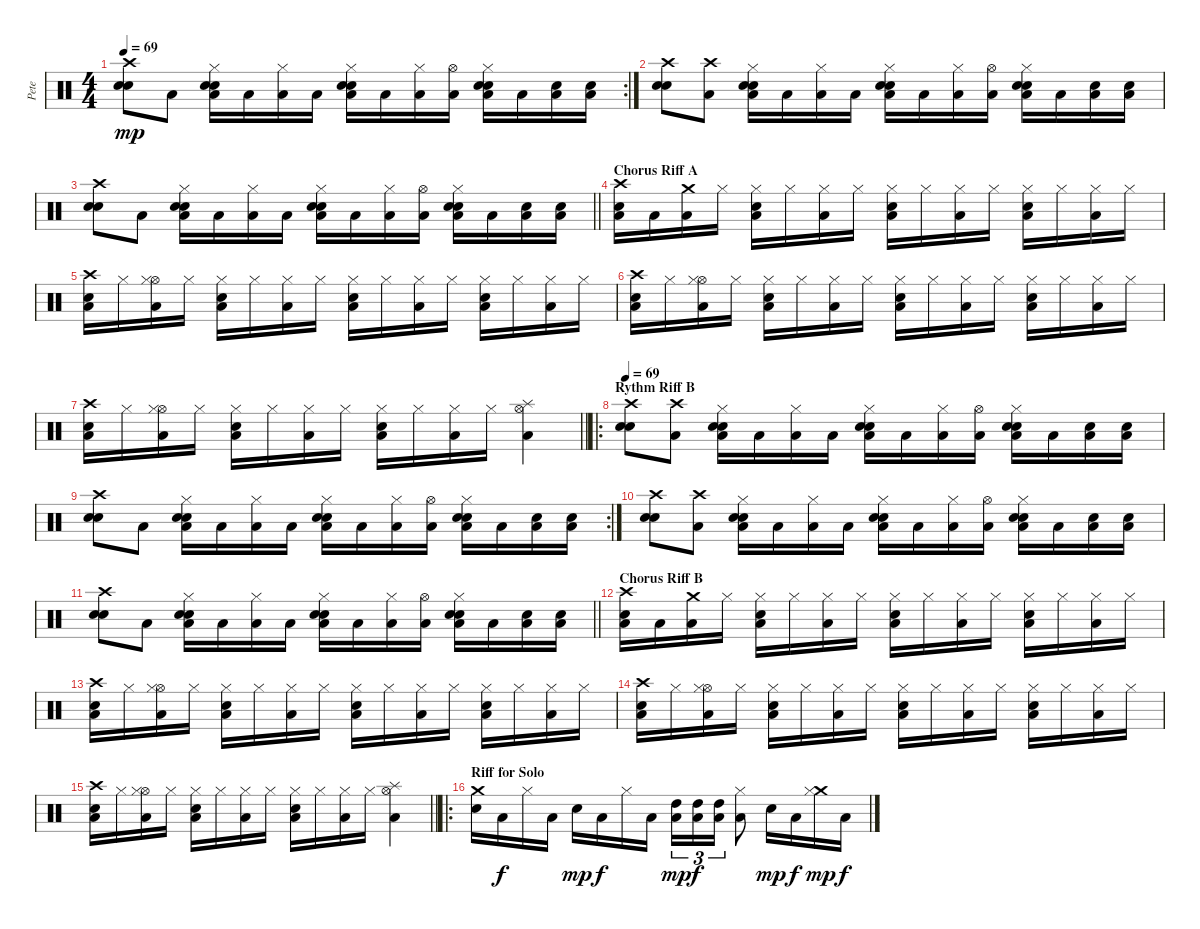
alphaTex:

\track ("Pete" "Pete") {instrument percussion}
\staff {score}
\articulation defaults
\rc 2
\ts (4 4)
\tempo 69
\clef neutral
\ks c
("Electric Snare (hit)" "Crash high (hit)" "Electric Snare (hit)").8{dy mp} "Low Floor Tom (hit)".8 ("Electric Snare (hit)" "Hi-Hat (closed)" "Low Floor Tom (hit)" "Electric Snare (hit)").16 "Low Floor Tom (hit)".16 ("Hi-Hat (closed)" "Low Floor Tom (hit)").16 "Low Floor Tom (hit)".16 ("Electric Snare (hit)" "Hi-Hat (closed)" "Low Floor Tom (hit)" "Electric Snare (hit)").16 "Low Floor Tom (hit)".16 ("Hi-Hat (closed)" "Low Floor Tom (hit)").16 ("Hi-Hat (open)" "Low Floor Tom (hit)").16 ("Electric Snare (hit)" "Hi-Hat (closed)" "Low Floor Tom (hit)" "Electric Snare (hit)").16 "Low Floor Tom (hit)".16 ("Electric Snare (hit)" "Low Floor Tom (hit)").16 ("Electric Snare (hit)" "Low Floor Tom (hit)").16 |
("Electric Snare (hit)" "Crash high (hit)" "Electric Snare (hit)").8 ("Crash high (hit)" "Low Floor Tom (hit)").8 ("Electric Snare (hit)" "Hi-Hat (closed)" "Low Floor Tom (hit)" "Electric Snare (hit)").16 "Low Floor Tom (hit)".16 ("Hi-Hat (closed)" "Low Floor Tom (hit)").16 "Low Floor Tom (hit)".16 ("Electric Snare (hit)" "Hi-Hat (closed)" "Low Floor Tom (hit)" "Electric Snare (hit)").16 "Low Floor Tom (hit)".16 ("Hi-Hat (closed)" "Low Floor Tom (hit)").16 ("Hi-Hat (open)" "Low Floor Tom (hit)").16 ("Electric Snare (hit)" "Hi-Hat (closed)" "Low Floor Tom (hit)" "Electric Snare (hit)").16 "Low Floor Tom (hit)".16 ("Electric Snare (hit)" "Low Floor Tom (hit)").16 ("Electric Snare (hit)" "Low Floor Tom (hit)").16 |
\barLineRight lightlight
("Electric Snare (hit)" "Crash high (hit)" "Electric Snare (hit)").8 "Low Floor Tom (hit)".8 ("Electric Snare (hit)" "Hi-Hat (closed)" "Low Floor Tom (hit)" "Electric Snare (hit)").16 "Low Floor Tom (hit)".16 ("Hi-Hat (closed)" "Low Floor Tom (hit)").16 "Low Floor Tom (hit)".16 ("Electric Snare (hit)" "Hi-Hat (closed)" "Low Floor Tom (hit)" "Electric Snare (hit)").16 "Low Floor Tom (hit)".16 ("Hi-Hat (closed)" "Low Floor Tom (hit)").16 ("Hi-Hat (open)" "Low Floor Tom (hit)").16 ("Electric Snare (hit)" "Hi-Hat (closed)" "Low Floor Tom (hit)" "Electric Snare (hit)").16 "Low Floor Tom (hit)".16 ("Electric Snare (hit)" "Low Floor Tom (hit)").16 ("Electric Snare (hit)" "Low Floor Tom (hit)").16 |
\section ("" "Chorus Riff A")
("Electric Snare (hit)" "Crash high (hit)" "Low Floor Tom (hit)").16 "Low Floor Tom (hit)".16 ("Crash medium (hit)" "Low Floor Tom (hit)").16 "Hi-Hat (closed)".16 ("Electric Snare (hit)" "Hi-Hat (closed)" "Low Floor Tom (hit)").16 "Hi-Hat (closed)".16 ("Hi-Hat (closed)" "Low Floor Tom (hit)").16 "Hi-Hat (closed)".16 ("Electric Snare (hit)" "Hi-Hat (closed)" "Low Floor Tom (hit)").16 "Hi-Hat (closed)".16 ("Hi-Hat (closed)" "Low Floor Tom (hit)").16 "Hi-Hat (closed)".16 ("Electric Snare (hit)" "Hi-Hat (closed)" "Low Floor Tom (hit)").16 "Hi-Hat (closed)".16 ("Hi-Hat (closed)" "Low Floor Tom (hit)").16 "Hi-Hat (closed)".16 |
("Electric Snare (hit)" "Crash high (hit)" "Low Floor Tom (hit)").16 "Hi-Hat (closed)".16 ("Hi-Hat (open)" "Hi-Hat (closed)" "Low Floor Tom (hit)").16 "Hi-Hat (closed)".16 ("Electric Snare (hit)" "Hi-Hat (closed)" "Low Floor Tom (hit)").16 "Hi-Hat (closed)".16 ("Hi-Hat (closed)" "Low Floor Tom (hit)").16 "Hi-Hat (closed)".16 ("Electric Snare (hit)" "Hi-Hat (closed)" "Low Floor Tom (hit)").16 "Hi-Hat (closed)".16 ("Hi-Hat (closed)" "Low Floor Tom (hit)").16 "Hi-Hat (closed)".16 ("Electric Snare (hit)" "Hi-Hat (closed)" "Low Floor Tom (hit)").16 "Hi-Hat (closed)".16 ("Hi-Hat (closed)" "Low Floor Tom (hit)").16 "Hi-Hat (closed)".16 |
("Electric Snare (hit)" "Crash high (hit)" "Low Floor Tom (hit)").16 "Hi-Hat (closed)".16 ("Hi-Hat (open)" "Hi-Hat (closed)" "Low Floor Tom (hit)").16 "Hi-Hat (closed)".16 ("Electric Snare (hit)" "Hi-Hat (closed)" "Low Floor Tom (hit)").16 "Hi-Hat (closed)".16 ("Hi-Hat (closed)" "Low Floor Tom (hit)").16 "Hi-Hat (closed)".16 ("Electric Snare (hit)" "Hi-Hat (closed)" "Low Floor Tom (hit)").16 "Hi-Hat (closed)".16 ("Hi-Hat (closed)" "Low Floor Tom (hit)").16 "Hi-Hat (closed)".16 ("Electric Snare (hit)" "Hi-Hat (closed)" "Low Floor Tom (hit)").16 "Hi-Hat (closed)".16 ("Hi-Hat (closed)" "Low Floor Tom (hit)").16 "Hi-Hat (closed)".16 |
\barLineRight lightlight
("Electric Snare (hit)" "Crash high (hit)" "Low Floor Tom (hit)").16 "Hi-Hat (closed)".16 ("Hi-Hat (open)" "Hi-Hat (closed)" "Low Floor Tom (hit)").16 "Hi-Hat (closed)".16 ("Electric Snare (hit)" "Hi-Hat (closed)" "Low Floor Tom (hit)").16 "Hi-Hat (closed)".16 ("Hi-Hat (closed)" "Low Floor Tom (hit)").16 "Hi-Hat (closed)".16 ("Electric Snare (hit)" "Hi-Hat (closed)" "Low Floor Tom (hit)").16 "Hi-Hat (closed)".16 ("Hi-Hat (closed)" "Low Floor Tom (hit)").16 "Hi-Hat (closed)".16 ("Splash (hit)" "Hi-Hat (open)" "Low Floor Tom (hit)").4 |
\ro
\section ("" "Rythm Riff B")
\tempo 69
("Electric Snare (hit)" "Crash high (hit)" "Electric Snare (hit)").8 ("Crash high (hit)" "Low Floor Tom (hit)").8 ("Electric Snare (hit)" "Hi-Hat (closed)" "Low Floor Tom (hit)" "Electric Snare (hit)").16 "Low Floor Tom (hit)".16 ("Hi-Hat (closed)" "Low Floor Tom (hit)").16 "Low Floor Tom (hit)".16 ("Electric Snare (hit)" "Hi-Hat (closed)" "Low Floor Tom (hit)" "Electric Snare (hit)").16 "Low Floor Tom (hit)".16 ("Hi-Hat (closed)" "Low Floor Tom (hit)").16 ("Hi-Hat (open)" "Low Floor Tom (hit)").16 ("Electric Snare (hit)" "Hi-Hat (closed)" "Low Floor Tom (hit)" "Electric Snare (hit)").16 "Low Floor Tom (hit)".16 ("Electric Snare (hit)" "Low Floor Tom (hit)").16 ("Electric Snare (hit)" "Low Floor Tom (hit)").16 |
\rc 2
("Electric Snare (hit)" "Crash high (hit)" "Electric Snare (hit)").8 "Low Floor Tom (hit)".8 ("Electric Snare (hit)" "Hi-Hat (closed)" "Low Floor Tom (hit)" "Electric Snare (hit)").16 "Low Floor Tom (hit)".16 ("Hi-Hat (closed)" "Low Floor Tom (hit)").16 "Low Floor Tom (hit)".16 ("Electric Snare (hit)" "Hi-Hat (closed)" "Low Floor Tom (hit)" "Electric Snare (hit)").16 "Low Floor Tom (hit)".16 ("Hi-Hat (closed)" "Low Floor Tom (hit)").16 ("Hi-Hat (open)" "Low Floor Tom (hit)").16 ("Electric Snare (hit)" "Hi-Hat (closed)" "Low Floor Tom (hit)" "Electric Snare (hit)").16 "Low Floor Tom (hit)".16 ("Electric Snare (hit)" "Low Floor Tom (hit)").16 ("Electric Snare (hit)" "Low Floor Tom (hit)").16 |
("Electric Snare (hit)" "Crash high (hit)" "Electric Snare (hit)").8 ("Crash high (hit)" "Low Floor Tom (hit)").8 ("Electric Snare (hit)" "Hi-Hat (closed)" "Low Floor Tom (hit)" "Electric Snare (hit)").16 "Low Floor Tom (hit)".16 ("Hi-Hat (closed)" "Low Floor Tom (hit)").16 "Low Floor Tom (hit)".16 ("Electric Snare (hit)" "Hi-Hat (closed)" "Low Floor Tom (hit)" "Electric Snare (hit)").16 "Low Floor Tom (hit)".16 ("Hi-Hat (closed)" "Low Floor Tom (hit)").16 ("Hi-Hat (open)" "Low Floor Tom (hit)").16 ("Electric Snare (hit)" "Hi-Hat (closed)" "Low Floor Tom (hit)" "Electric Snare (hit)").16 "Low Floor Tom (hit)".16 ("Electric Snare (hit)" "Low Floor Tom (hit)").16 ("Electric Snare (hit)" "Low Floor Tom (hit)").16 |
\barLineRight lightlight
("Electric Snare (hit)" "Crash high (hit)" "Electric Snare (hit)").8 "Low Floor Tom (hit)".8 ("Electric Snare (hit)" "Hi-Hat (closed)" "Low Floor Tom (hit)" "Electric Snare (hit)").16 "Low Floor Tom (hit)".16 ("Hi-Hat (closed)" "Low Floor Tom (hit)").16 "Low Floor Tom (hit)".16 ("Electric Snare (hit)" "Hi-Hat (closed)" "Low Floor Tom (hit)" "Electric Snare (hit)").16 "Low Floor Tom (hit)".16 ("Hi-Hat (closed)" "Low Floor Tom (hit)").16 ("Hi-Hat (open)" "Low Floor Tom (hit)").16 ("Electric Snare (hit)" "Hi-Hat (closed)" "Low Floor Tom (hit)" "Electric Snare (hit)").16 "Low Floor Tom (hit)".16 ("Electric Snare (hit)" "Low Floor Tom (hit)").16 ("Electric Snare (hit)" "Low Floor Tom (hit)").16 |
\section ("" "Chorus Riff B")
("Electric Snare (hit)" "Crash high (hit)" "Low Floor Tom (hit)").16 "Low Floor Tom (hit)".16 ("Crash medium (hit)" "Low Floor Tom (hit)").16 "Hi-Hat (closed)".16 ("Electric Snare (hit)" "Hi-Hat (closed)" "Low Floor Tom (hit)").16 "Hi-Hat (closed)".16 ("Hi-Hat (closed)" "Low Floor Tom (hit)").16 "Hi-Hat (closed)".16 ("Electric Snare (hit)" "Hi-Hat (closed)" "Low Floor Tom (hit)").16 "Hi-Hat (closed)".16 ("Hi-Hat (closed)" "Low Floor Tom (hit)").16 "Hi-Hat (closed)".16 ("Electric Snare (hit)" "Hi-Hat (closed)" "Low Floor Tom (hit)").16 "Hi-Hat (closed)".16 ("Hi-Hat (closed)" "Low Floor Tom (hit)").16 "Hi-Hat (closed)".16 |
("Electric Snare (hit)" "Crash high (hit)" "Low Floor Tom (hit)").16 "Hi-Hat (closed)".16 ("Hi-Hat (open)" "Hi-Hat (closed)" "Low Floor Tom (hit)").16 "Hi-Hat (closed)".16 ("Electric Snare (hit)" "Hi-Hat (closed)" "Low Floor Tom (hit)").16 "Hi-Hat (closed)".16 ("Hi-Hat (closed)" "Low Floor Tom (hit)").16 "Hi-Hat (closed)".16 ("Electric Snare (hit)" "Hi-Hat (closed)" "Low Floor Tom (hit)").16 "Hi-Hat (closed)".16 ("Hi-Hat (closed)" "Low Floor Tom (hit)").16 "Hi-Hat (closed)".16 ("Electric Snare (hit)" "Hi-Hat (closed)" "Low Floor Tom (hit)").16 "Hi-Hat (closed)".16 ("Hi-Hat (closed)" "Low Floor Tom (hit)").16 "Hi-Hat (closed)".16 |
("Electric Snare (hit)" "Crash high (hit)" "Low Floor Tom (hit)").16 "Hi-Hat (closed)".16 ("Hi-Hat (open)" "Hi-Hat (closed)" "Low Floor Tom (hit)").16 "Hi-Hat (closed)".16 ("Electric Snare (hit)" "Hi-Hat (closed)" "Low Floor Tom (hit)").16 "Hi-Hat (closed)".16 ("Hi-Hat (closed)" "Low Floor Tom (hit)").16 "Hi-Hat (closed)".16 ("Electric Snare (hit)" "Hi-Hat (closed)" "Low Floor Tom (hit)").16 "Hi-Hat (closed)".16 ("Hi-Hat (closed)" "Low Floor Tom (hit)").16 "Hi-Hat (closed)".16 ("Electric Snare (hit)" "Hi-Hat (closed)" "Low Floor Tom (hit)").16 "Hi-Hat (closed)".16 ("Hi-Hat (closed)" "Low Floor Tom (hit)").16 "Hi-Hat (closed)".16 |
\barLineRight lightlight
("Electric Snare (hit)" "Crash high (hit)" "Low Floor Tom (hit)").16 "Hi-Hat (closed)".16 ("Hi-Hat (open)" "Hi-Hat (closed)" "Low Floor Tom (hit)").16 "Hi-Hat (closed)".16 ("Electric Snare (hit)" "Hi-Hat (closed)" "Low Floor Tom (hit)").16 "Hi-Hat (closed)".16 ("Hi-Hat (closed)" "Low Floor Tom (hit)").16 "Hi-Hat (closed)".16 ("Electric Snare (hit)" "Hi-Hat (closed)" "Low Floor Tom (hit)").16 "Hi-Hat (closed)".16 ("Hi-Hat (closed)" "Low Floor Tom (hit)").16 "Hi-Hat (closed)".16 ("Splash (hit)" "Hi-Hat (open)" "Low Floor Tom (hit)").4 |
\ro
\section ("" "Riff for Solo ")
("Electric Snare (hit)" "Crash medium (hit)").16 "Low Floor Tom (hit)".16{dy f} "Hi-Hat (closed)".16 "Low Floor Tom (hit)".16 "Electric Snare (hit)".16{dy mp} "Low Floor Tom (hit)".16{dy f} "Hi-Hat (closed)".16 "Low Floor Tom (hit)".16 ("High Tom (hit)" "Low Floor Tom (hit)").16{tu (3 2) dy mp} ("High Tom (hit)" "Low Floor Tom (hit)").16{tu (3 2) dy f} ("High Tom (hit)" "Low Floor Tom (hit)").16{tu (3 2)} ("Hi-Hat (closed)" "Low Floor Tom (hit)").8 "Electric Snare (hit)".16{dy mp} "Low Floor Tom (hit)".16{dy f} ("Crash medium (hit)" "Hi-Hat (closed)").16{dy mp} "Low Floor Tom (hit)".16{dy f}
